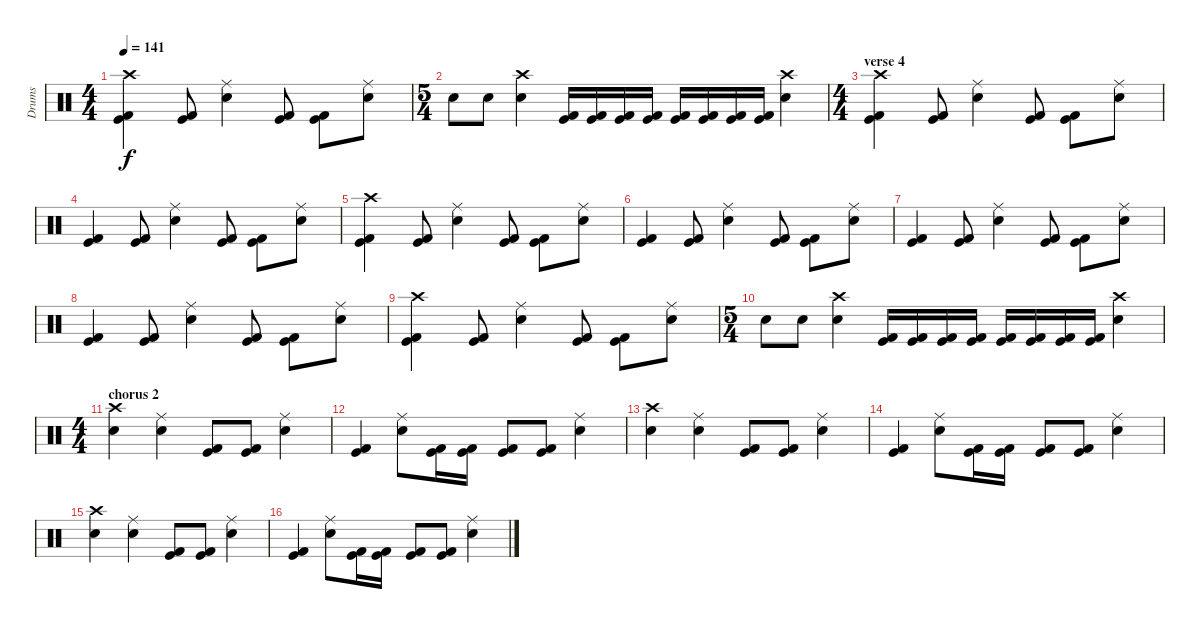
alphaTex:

\track ("Drums" "Drums") {instrument percussion}
\staff {score}
\articulation defaults
\ts (4 4)
\tempo 141
\clef neutral
\ks c
("Crash high (hit)" "Kick (hit)" "Kick (hit) 2").4{dy f} ("Kick (hit)" "Kick (hit) 2").8 ("Ride (middle)" "Electric Snare (hit)").4 ("Kick (hit)" "Kick (hit) 2").8 ("Kick (hit)" "Kick (hit) 2").8 ("Ride (middle)" "Electric Snare (hit)").8 |
\ts (5 4)
"Electric Snare (hit)".8 "Electric Snare (hit)".8 ("Crash high (hit)" "Electric Snare (hit)").4 ("Kick (hit)" "Kick (hit) 2").16 ("Kick (hit)" "Kick (hit) 2").16 ("Kick (hit)" "Kick (hit) 2").16 ("Kick (hit)" "Kick (hit) 2").16 ("Kick (hit)" "Kick (hit) 2").16 ("Kick (hit)" "Kick (hit) 2").16 ("Kick (hit)" "Kick (hit) 2").16 ("Kick (hit)" "Kick (hit) 2").16 ("Crash high (hit)" "Electric Snare (hit)").4 |
\ts (4 4)
\section ("" "verse 4")
("Crash high (hit)" "Kick (hit)" "Kick (hit) 2").4 ("Kick (hit)" "Kick (hit) 2").8 ("Ride (middle)" "Electric Snare (hit)").4 ("Kick (hit)" "Kick (hit) 2").8 ("Kick (hit)" "Kick (hit) 2").8 ("Ride (middle)" "Electric Snare (hit)").8 |
("Kick (hit)" "Kick (hit) 2").4 ("Kick (hit)" "Kick (hit) 2").8 ("Ride (middle)" "Electric Snare (hit)").4 ("Kick (hit)" "Kick (hit) 2").8 ("Kick (hit)" "Kick (hit) 2").8 ("Ride (middle)" "Electric Snare (hit)").8 |
("Crash high (hit)" "Kick (hit)" "Kick (hit) 2").4 ("Kick (hit)" "Kick (hit) 2").8 ("Ride (middle)" "Electric Snare (hit)").4 ("Kick (hit)" "Kick (hit) 2").8 ("Kick (hit)" "Kick (hit) 2").8 ("Ride (middle)" "Electric Snare (hit)").8 |
("Kick (hit)" "Kick (hit) 2").4 ("Kick (hit)" "Kick (hit) 2").8 ("Ride (middle)" "Electric Snare (hit)").4 ("Kick (hit)" "Kick (hit) 2").8 ("Kick (hit)" "Kick (hit) 2").8 ("Ride (middle)" "Electric Snare (hit)").8 |
("Kick (hit)" "Kick (hit) 2").4 ("Kick (hit)" "Kick (hit) 2").8 ("Ride (middle)" "Electric Snare (hit)").4 ("Kick (hit)" "Kick (hit) 2").8 ("Kick (hit)" "Kick (hit) 2").8 ("Ride (middle)" "Electric Snare (hit)").8 |
("Kick (hit)" "Kick (hit) 2").4 ("Kick (hit)" "Kick (hit) 2").8 ("Ride (middle)" "Electric Snare (hit)").4 ("Kick (hit)" "Kick (hit) 2").8 ("Kick (hit)" "Kick (hit) 2").8 ("Ride (middle)" "Electric Snare (hit)").8 |
("Crash high (hit)" "Kick (hit)" "Kick (hit) 2").4 ("Kick (hit)" "Kick (hit) 2").8 ("Ride (middle)" "Electric Snare (hit)").4 ("Kick (hit)" "Kick (hit) 2").8 ("Kick (hit)" "Kick (hit) 2").8 ("Ride (middle)" "Electric Snare (hit)").8 |
\ts (5 4)
"Electric Snare (hit)".8 "Electric Snare (hit)".8 ("Crash high (hit)" "Electric Snare (hit)").4 ("Kick (hit)" "Kick (hit) 2").16 ("Kick (hit)" "Kick (hit) 2").16 ("Kick (hit)" "Kick (hit) 2").16 ("Kick (hit)" "Kick (hit) 2").16 ("Kick (hit)" "Kick (hit) 2").16 ("Kick (hit)" "Kick (hit) 2").16 ("Kick (hit)" "Kick (hit) 2").16 ("Kick (hit)" "Kick (hit) 2").16 ("Crash high (hit)" "Electric Snare (hit)").4 |
\ts (4 4)
\section ("" "chorus 2")
("Crash high (hit)" "Electric Snare (hit)").4 ("Ride (middle)" "Electric Snare (hit)").4 ("Kick (hit)" "Kick (hit) 2").8 ("Kick (hit)" "Kick (hit) 2").8 ("Ride (middle)" "Electric Snare (hit)").4 |
("Kick (hit)" "Kick (hit) 2").4 ("Ride (middle)" "Electric Snare (hit)").8 ("Kick (hit)" "Kick (hit) 2").16 ("Kick (hit)" "Kick (hit) 2").16 ("Kick (hit)" "Kick (hit) 2").8 ("Kick (hit)" "Kick (hit) 2").8 ("Ride (middle)" "Electric Snare (hit)").4 |
("Crash high (hit)" "Electric Snare (hit)").4 ("Ride (middle)" "Electric Snare (hit)").4 ("Kick (hit)" "Kick (hit) 2").8 ("Kick (hit)" "Kick (hit) 2").8 ("Ride (middle)" "Electric Snare (hit)").4 |
("Kick (hit)" "Kick (hit) 2").4 ("Ride (middle)" "Electric Snare (hit)").8 ("Kick (hit)" "Kick (hit) 2").16 ("Kick (hit)" "Kick (hit) 2").16 ("Kick (hit)" "Kick (hit) 2").8 ("Kick (hit)" "Kick (hit) 2").8 ("Ride (middle)" "Electric Snare (hit)").4 |
("Crash high (hit)" "Electric Snare (hit)").4 ("Ride (middle)" "Electric Snare (hit)").4 ("Kick (hit)" "Kick (hit) 2").8 ("Kick (hit)" "Kick (hit) 2").8 ("Ride (middle)" "Electric Snare (hit)").4 |
("Kick (hit)" "Kick (hit) 2").4 ("Ride (middle)" "Electric Snare (hit)").8 ("Kick (hit)" "Kick (hit) 2").16 ("Kick (hit)" "Kick (hit) 2").16 ("Kick (hit)" "Kick (hit) 2").8 ("Kick (hit)" "Kick (hit) 2").8 ("Ride (middle)" "Electric Snare (hit)").4
